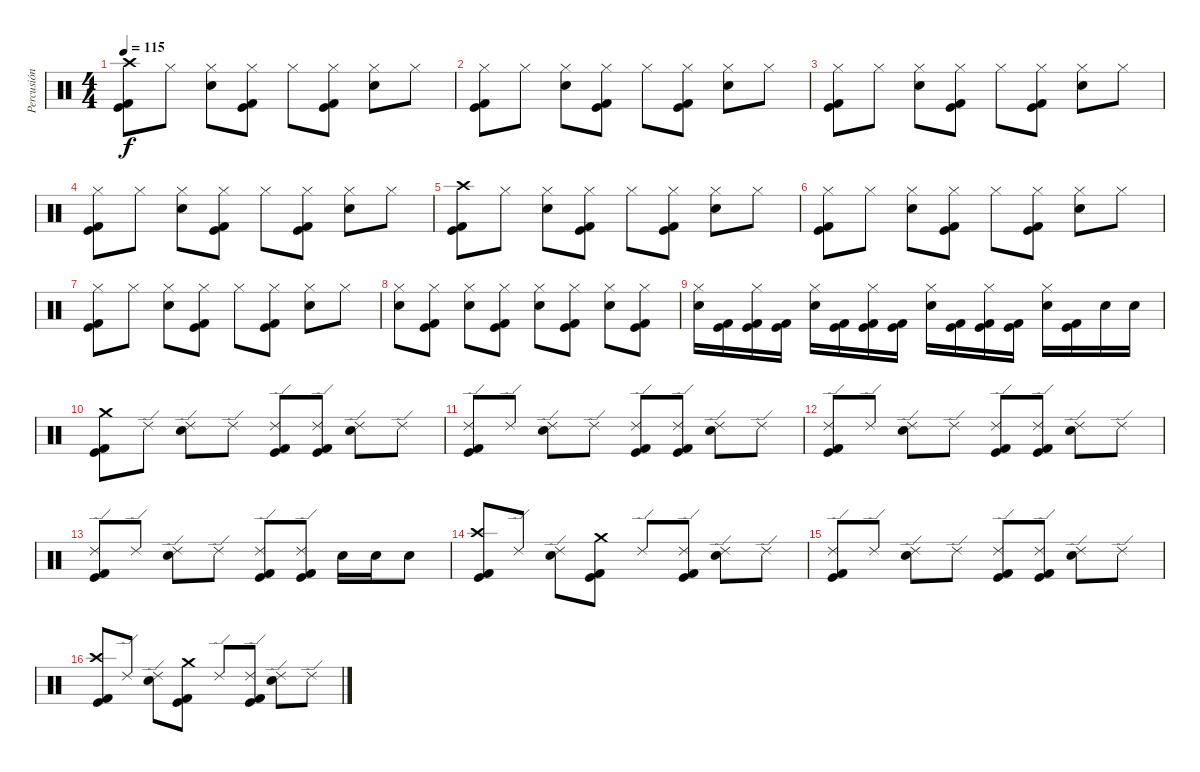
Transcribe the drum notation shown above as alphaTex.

\track ("Percusión" "Percusión") {instrument percussion}
\staff {score}
\articulation defaults
\ts (4 4)
\tempo 115
\clef neutral
\ks c
("Kick (hit) 2" "Crash high (hit)" "Kick (hit)").8{dy f} "Hi-Hat (closed)".8 ("Snare (hit) 2" "Hi-Hat (closed)").8 ("Kick (hit) 2" "Hi-Hat (closed)" "Kick (hit)").8 "Hi-Hat (closed)".8 ("Kick (hit) 2" "Hi-Hat (closed)" "Kick (hit)").8 ("Snare (hit) 2" "Hi-Hat (closed)").8 "Hi-Hat (closed)".8 |
("Kick (hit) 2" "Hi-Hat (closed)" "Kick (hit)").8 "Hi-Hat (closed)".8 ("Snare (hit) 2" "Hi-Hat (closed)").8 ("Kick (hit) 2" "Hi-Hat (closed)" "Kick (hit)").8 "Hi-Hat (closed)".8 ("Kick (hit) 2" "Hi-Hat (closed)" "Kick (hit)").8 ("Snare (hit) 2" "Hi-Hat (closed)").8 "Hi-Hat (closed)".8 |
("Kick (hit) 2" "Hi-Hat (closed)" "Kick (hit)").8 "Hi-Hat (closed)".8 ("Snare (hit) 2" "Hi-Hat (closed)").8 ("Kick (hit) 2" "Hi-Hat (closed)" "Kick (hit)").8 "Hi-Hat (closed)".8 ("Kick (hit) 2" "Hi-Hat (closed)" "Kick (hit)").8 ("Snare (hit) 2" "Hi-Hat (closed)").8 "Hi-Hat (closed)".8 |
("Kick (hit) 2" "Hi-Hat (closed)" "Kick (hit)").8 "Hi-Hat (closed)".8 ("Snare (hit) 2" "Hi-Hat (closed)").8 ("Kick (hit) 2" "Hi-Hat (closed)" "Kick (hit)").8 "Hi-Hat (closed)".8 ("Kick (hit) 2" "Hi-Hat (closed)" "Kick (hit)").8 ("Snare (hit) 2" "Hi-Hat (closed)").8 "Hi-Hat (closed)".8 |
("Kick (hit) 2" "Crash high (hit)" "Kick (hit)").8 "Hi-Hat (closed)".8 ("Snare (hit) 2" "Hi-Hat (closed)").8 ("Kick (hit) 2" "Hi-Hat (closed)" "Kick (hit)").8 "Hi-Hat (closed)".8 ("Kick (hit) 2" "Hi-Hat (closed)" "Kick (hit)").8 ("Snare (hit) 2" "Hi-Hat (closed)").8 "Hi-Hat (closed)".8 |
("Kick (hit) 2" "Hi-Hat (closed)" "Kick (hit)").8 "Hi-Hat (closed)".8 ("Snare (hit) 2" "Hi-Hat (closed)").8 ("Kick (hit) 2" "Hi-Hat (closed)" "Kick (hit)").8 "Hi-Hat (closed)".8 ("Kick (hit) 2" "Hi-Hat (closed)" "Kick (hit)").8 ("Snare (hit) 2" "Hi-Hat (closed)").8 "Hi-Hat (closed)".8 |
("Kick (hit) 2" "Hi-Hat (closed)" "Kick (hit)").8 "Hi-Hat (closed)".8 ("Snare (hit) 2" "Hi-Hat (closed)").8 ("Kick (hit) 2" "Hi-Hat (closed)" "Kick (hit)").8 "Hi-Hat (closed)".8 ("Kick (hit) 2" "Hi-Hat (closed)" "Kick (hit)").8 ("Snare (hit) 2" "Hi-Hat (closed)").8 "Hi-Hat (closed)".8 |
("Snare (hit) 2" "Hi-Hat (closed)").8 ("Kick (hit) 2" "Hi-Hat (closed)" "Kick (hit)").8 ("Snare (hit) 2" "Hi-Hat (closed)").8 ("Kick (hit) 2" "Hi-Hat (closed)" "Kick (hit)").8 ("Snare (hit) 2" "Hi-Hat (closed)").8 ("Kick (hit) 2" "Hi-Hat (closed)" "Kick (hit)").8 ("Snare (hit) 2" "Hi-Hat (closed)").8 ("Kick (hit) 2" "Hi-Hat (closed)" "Kick (hit)").8 |
("Snare (hit) 2" "Hi-Hat (closed)").16 ("Kick (hit) 2" "Kick (hit)").16 ("Kick (hit) 2" "Hi-Hat (closed)" "Kick (hit)").16 ("Kick (hit) 2" "Kick (hit)").16 ("Snare (hit) 2" "Hi-Hat (closed)").16 ("Kick (hit) 2" "Kick (hit)").16 ("Kick (hit) 2" "Hi-Hat (closed)" "Kick (hit)").16 ("Kick (hit) 2" "Kick (hit)").16 ("Snare (hit) 2" "Hi-Hat (closed)").16 ("Kick (hit) 2" "Kick (hit)").16 ("Kick (hit) 2" "Hi-Hat (closed)" "Kick (hit)").16 ("Kick (hit) 2" "Kick (hit)").16 ("Snare (hit) 2" "Hi-Hat (closed)").16 ("Kick (hit) 2" "Kick (hit)").16 "Snare (hit) 2".16 "Snare (hit) 2".16 |
("Kick (hit) 2" "Crash medium (hit)" "Kick (hit)").8 "Ride (edge) 2".8 ("Snare (hit) 2" "Ride (edge) 2").8 "Ride (edge) 2".8 ("Kick (hit) 2" "Ride (edge) 2" "Kick (hit)").8 ("Kick (hit) 2" "Ride (edge) 2" "Kick (hit)").8 ("Snare (hit) 2" "Ride (edge) 2").8 "Ride (edge) 2".8 |
("Kick (hit) 2" "Ride (edge) 2" "Kick (hit)").8 "Ride (edge) 2".8 ("Snare (hit) 2" "Ride (edge) 2").8 "Ride (edge) 2".8 ("Kick (hit) 2" "Ride (edge) 2" "Kick (hit)").8 ("Kick (hit) 2" "Ride (edge) 2" "Kick (hit)").8 ("Snare (hit) 2" "Ride (edge) 2").8 "Ride (edge) 2".8 |
("Kick (hit) 2" "Ride (edge) 2" "Kick (hit)").8 "Ride (edge) 2".8 ("Snare (hit) 2" "Ride (edge) 2").8 "Ride (edge) 2".8 ("Kick (hit) 2" "Ride (edge) 2" "Kick (hit)").8 ("Kick (hit) 2" "Ride (edge) 2" "Kick (hit)").8 ("Snare (hit) 2" "Ride (edge) 2").8 "Ride (edge) 2".8 |
("Kick (hit) 2" "Ride (edge) 2" "Kick (hit)").8 "Ride (edge) 2".8 ("Snare (hit) 2" "Ride (edge) 2").8 "Ride (edge) 2".8 ("Kick (hit) 2" "Ride (edge) 2" "Kick (hit)").8 ("Kick (hit) 2" "Ride (edge) 2" "Kick (hit)").8 "Snare (hit) 2".16 "Snare (hit) 2".16 "Snare (hit) 2".8 |
("Kick (hit) 2" "Crash high (hit)" "Kick (hit)").8 "Ride (edge) 2".8 ("Snare (hit) 2" "Ride (edge) 2").8 ("Kick (hit) 2" "Crash medium (hit)" "Kick (hit)").8 "Ride (edge) 2".8 ("Kick (hit) 2" "Ride (edge) 2" "Kick (hit)").8 ("Snare (hit) 2" "Ride (edge) 2").8 "Ride (edge) 2".8 |
("Kick (hit) 2" "Ride (edge) 2" "Kick (hit)").8 "Ride (edge) 2".8 ("Snare (hit) 2" "Ride (edge) 2").8 "Ride (edge) 2".8 ("Kick (hit) 2" "Ride (edge) 2" "Kick (hit)").8 ("Kick (hit) 2" "Ride (edge) 2" "Kick (hit)").8 ("Snare (hit) 2" "Ride (edge) 2").8 "Ride (edge) 2".8 |
("Kick (hit) 2" "Crash high (hit)" "Kick (hit)").8 "Ride (edge) 2".8 ("Snare (hit) 2" "Ride (edge) 2").8 ("Kick (hit) 2" "Crash medium (hit)" "Kick (hit)").8 "Ride (edge) 2".8 ("Kick (hit) 2" "Ride (edge) 2" "Kick (hit)").8 ("Snare (hit) 2" "Ride (edge) 2").8 "Ride (edge) 2".8
